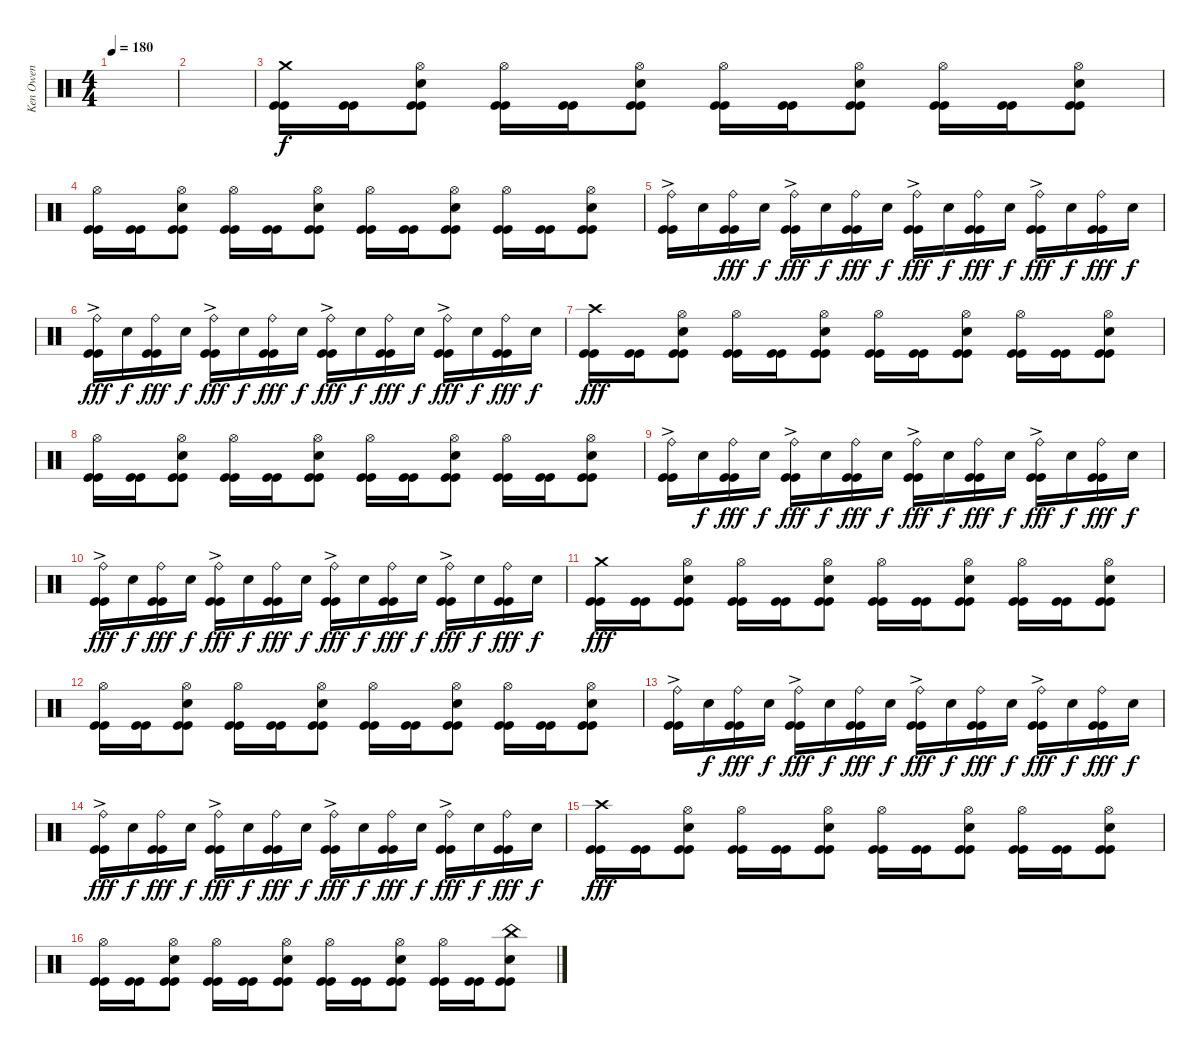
\track ("Ken Owen" "Ken Owen") {instrument percussion}
\staff {score}
\articulation defaults
\ts (4 4)
\tempo 180
\clef neutral
\ks c
|
|
("Crash medium (hit)" "Kick (hit)" "Kick (hit)").16 ("Kick (hit)" "Kick (hit)").16 ("Hi-Hat (open)" "Snare (hit) 2" "Kick (hit)" "Kick (hit)").8 ("Hi-Hat (open)" "Kick (hit)" "Kick (hit)").16 ("Kick (hit)" "Kick (hit)").16 ("Hi-Hat (open)" "Snare (hit) 2" "Kick (hit)" "Kick (hit)").8 ("Hi-Hat (open)" "Kick (hit)" "Kick (hit)").16 ("Kick (hit)" "Kick (hit)").16 ("Hi-Hat (open)" "Snare (hit) 2" "Kick (hit)" "Kick (hit)").8 ("Hi-Hat (open)" "Kick (hit)" "Kick (hit)").16 ("Kick (hit)" "Kick (hit)").16 ("Hi-Hat (open)" "Snare (hit) 2" "Kick (hit)" "Kick (hit)").8 |
("Hi-Hat (open)" "Kick (hit)" "Kick (hit)").16 ("Kick (hit)" "Kick (hit)").16 ("Hi-Hat (open)" "Snare (hit) 2" "Kick (hit)" "Kick (hit)").8 ("Hi-Hat (open)" "Kick (hit)" "Kick (hit)").16 ("Kick (hit)" "Kick (hit)").16 ("Hi-Hat (open)" "Snare (hit) 2" "Kick (hit)" "Kick (hit)").8 ("Hi-Hat (open)" "Kick (hit)" "Kick (hit)").16 ("Kick (hit)" "Kick (hit)").16 ("Hi-Hat (open)" "Snare (hit) 2" "Kick (hit)" "Kick (hit)").8 ("Hi-Hat (open)" "Kick (hit)" "Kick (hit)").16 ("Kick (hit)" "Kick (hit)").16 ("Hi-Hat (open)" "Snare (hit) 2" "Kick (hit)" "Kick (hit)").8 |
("Ride (bell)"{ac} "Kick (hit)" "Kick (hit)").16 "Snare (hit) 2".16{dy f} ("Ride (bell)" "Kick (hit)" "Kick (hit)").16{dy fff} "Snare (hit) 2".16{dy f} ("Ride (bell)"{ac} "Kick (hit)" "Kick (hit)").16{dy fff} "Snare (hit) 2".16{dy f} ("Ride (bell)" "Kick (hit)" "Kick (hit)").16{dy fff} "Snare (hit) 2".16{dy f} ("Ride (bell)"{ac} "Kick (hit)" "Kick (hit)").16{dy fff} "Snare (hit) 2".16{dy f} ("Ride (bell)" "Kick (hit)" "Kick (hit)").16{dy fff} "Snare (hit) 2".16{dy f} ("Ride (bell)"{ac} "Kick (hit)" "Kick (hit)").16{dy fff} "Snare (hit) 2".16{dy f} ("Ride (bell)" "Kick (hit)" "Kick (hit)").16{dy fff} "Snare (hit) 2".16{dy f} |
("Ride (bell)"{ac} "Kick (hit)" "Kick (hit)").16{dy fff} "Snare (hit) 2".16{dy f} ("Ride (bell)" "Kick (hit)" "Kick (hit)").16{dy fff} "Snare (hit) 2".16{dy f} ("Ride (bell)"{ac} "Kick (hit)" "Kick (hit)").16{dy fff} "Snare (hit) 2".16{dy f} ("Ride (bell)" "Kick (hit)" "Kick (hit)").16{dy fff} "Snare (hit) 2".16{dy f} ("Ride (bell)"{ac} "Kick (hit)" "Kick (hit)").16{dy fff} "Snare (hit) 2".16{dy f} ("Ride (bell)" "Kick (hit)" "Kick (hit)").16{dy fff} "Snare (hit) 2".16{dy f} ("Ride (bell)"{ac} "Kick (hit)" "Kick (hit)").16{dy fff} "Snare (hit) 2".16{dy f} ("Ride (bell)" "Kick (hit)" "Kick (hit)").16{dy fff} "Snare (hit) 2".16{dy f} |
("Crash high (hit)" "Kick (hit)" "Kick (hit)").16{dy fff} ("Kick (hit)" "Kick (hit)").16 ("Hi-Hat (open)" "Snare (hit) 2" "Kick (hit)" "Kick (hit)").8 ("Hi-Hat (open)" "Kick (hit)" "Kick (hit)").16 ("Kick (hit)" "Kick (hit)").16 ("Hi-Hat (open)" "Snare (hit) 2" "Kick (hit)" "Kick (hit)").8 ("Hi-Hat (open)" "Kick (hit)" "Kick (hit)").16 ("Kick (hit)" "Kick (hit)").16 ("Hi-Hat (open)" "Snare (hit) 2" "Kick (hit)" "Kick (hit)").8 ("Hi-Hat (open)" "Kick (hit)" "Kick (hit)").16 ("Kick (hit)" "Kick (hit)").16 ("Hi-Hat (open)" "Snare (hit) 2" "Kick (hit)" "Kick (hit)").8 |
("Hi-Hat (open)" "Kick (hit)" "Kick (hit)").16 ("Kick (hit)" "Kick (hit)").16 ("Hi-Hat (open)" "Snare (hit) 2" "Kick (hit)" "Kick (hit)").8 ("Hi-Hat (open)" "Kick (hit)" "Kick (hit)").16 ("Kick (hit)" "Kick (hit)").16 ("Hi-Hat (open)" "Snare (hit) 2" "Kick (hit)" "Kick (hit)").8 ("Hi-Hat (open)" "Kick (hit)" "Kick (hit)").16 ("Kick (hit)" "Kick (hit)").16 ("Hi-Hat (open)" "Snare (hit) 2" "Kick (hit)" "Kick (hit)").8 ("Hi-Hat (open)" "Kick (hit)" "Kick (hit)").16 ("Kick (hit)" "Kick (hit)").16 ("Hi-Hat (open)" "Snare (hit) 2" "Kick (hit)" "Kick (hit)").8 |
("Ride (bell)"{ac} "Kick (hit)" "Kick (hit)").16 "Snare (hit) 2".16{dy f} ("Ride (bell)" "Kick (hit)" "Kick (hit)").16{dy fff} "Snare (hit) 2".16{dy f} ("Ride (bell)"{ac} "Kick (hit)" "Kick (hit)").16{dy fff} "Snare (hit) 2".16{dy f} ("Ride (bell)" "Kick (hit)" "Kick (hit)").16{dy fff} "Snare (hit) 2".16{dy f} ("Ride (bell)"{ac} "Kick (hit)" "Kick (hit)").16{dy fff} "Snare (hit) 2".16{dy f} ("Ride (bell)" "Kick (hit)" "Kick (hit)").16{dy fff} "Snare (hit) 2".16{dy f} ("Ride (bell)"{ac} "Kick (hit)" "Kick (hit)").16{dy fff} "Snare (hit) 2".16{dy f} ("Ride (bell)" "Kick (hit)" "Kick (hit)").16{dy fff} "Snare (hit) 2".16{dy f} |
("Ride (bell)"{ac} "Kick (hit)" "Kick (hit)").16{dy fff} "Snare (hit) 2".16{dy f} ("Ride (bell)" "Kick (hit)" "Kick (hit)").16{dy fff} "Snare (hit) 2".16{dy f} ("Ride (bell)"{ac} "Kick (hit)" "Kick (hit)").16{dy fff} "Snare (hit) 2".16{dy f} ("Ride (bell)" "Kick (hit)" "Kick (hit)").16{dy fff} "Snare (hit) 2".16{dy f} ("Ride (bell)"{ac} "Kick (hit)" "Kick (hit)").16{dy fff} "Snare (hit) 2".16{dy f} ("Ride (bell)" "Kick (hit)" "Kick (hit)").16{dy fff} "Snare (hit) 2".16{dy f} ("Ride (bell)"{ac} "Kick (hit)" "Kick (hit)").16{dy fff} "Snare (hit) 2".16{dy f} ("Ride (bell)" "Kick (hit)" "Kick (hit)").16{dy fff} "Snare (hit) 2".16{dy f} |
("Crash medium (hit)" "Kick (hit)" "Kick (hit)").16{dy fff} ("Kick (hit)" "Kick (hit)").16 ("Hi-Hat (open)" "Snare (hit) 2" "Kick (hit)" "Kick (hit)").8 ("Hi-Hat (open)" "Kick (hit)" "Kick (hit)").16 ("Kick (hit)" "Kick (hit)").16 ("Hi-Hat (open)" "Snare (hit) 2" "Kick (hit)" "Kick (hit)").8 ("Hi-Hat (open)" "Kick (hit)" "Kick (hit)").16 ("Kick (hit)" "Kick (hit)").16 ("Hi-Hat (open)" "Snare (hit) 2" "Kick (hit)" "Kick (hit)").8 ("Hi-Hat (open)" "Kick (hit)" "Kick (hit)").16 ("Kick (hit)" "Kick (hit)").16 ("Hi-Hat (open)" "Snare (hit) 2" "Kick (hit)" "Kick (hit)").8 |
("Hi-Hat (open)" "Kick (hit)" "Kick (hit)").16 ("Kick (hit)" "Kick (hit)").16 ("Hi-Hat (open)" "Snare (hit) 2" "Kick (hit)" "Kick (hit)").8 ("Hi-Hat (open)" "Kick (hit)" "Kick (hit)").16 ("Kick (hit)" "Kick (hit)").16 ("Hi-Hat (open)" "Snare (hit) 2" "Kick (hit)" "Kick (hit)").8 ("Hi-Hat (open)" "Kick (hit)" "Kick (hit)").16 ("Kick (hit)" "Kick (hit)").16 ("Hi-Hat (open)" "Snare (hit) 2" "Kick (hit)" "Kick (hit)").8 ("Hi-Hat (open)" "Kick (hit)" "Kick (hit)").16 ("Kick (hit)" "Kick (hit)").16 ("Hi-Hat (open)" "Snare (hit) 2" "Kick (hit)" "Kick (hit)").8 |
("Ride (bell)"{ac} "Kick (hit)" "Kick (hit)").16 "Snare (hit) 2".16{dy f} ("Ride (bell)" "Kick (hit)" "Kick (hit)").16{dy fff} "Snare (hit) 2".16{dy f} ("Ride (bell)"{ac} "Kick (hit)" "Kick (hit)").16{dy fff} "Snare (hit) 2".16{dy f} ("Ride (bell)" "Kick (hit)" "Kick (hit)").16{dy fff} "Snare (hit) 2".16{dy f} ("Ride (bell)"{ac} "Kick (hit)" "Kick (hit)").16{dy fff} "Snare (hit) 2".16{dy f} ("Ride (bell)" "Kick (hit)" "Kick (hit)").16{dy fff} "Snare (hit) 2".16{dy f} ("Ride (bell)"{ac} "Kick (hit)" "Kick (hit)").16{dy fff} "Snare (hit) 2".16{dy f} ("Ride (bell)" "Kick (hit)" "Kick (hit)").16{dy fff} "Snare (hit) 2".16{dy f} |
("Ride (bell)"{ac} "Kick (hit)" "Kick (hit)").16{dy fff} "Snare (hit) 2".16{dy f} ("Ride (bell)" "Kick (hit)" "Kick (hit)").16{dy fff} "Snare (hit) 2".16{dy f} ("Ride (bell)"{ac} "Kick (hit)" "Kick (hit)").16{dy fff} "Snare (hit) 2".16{dy f} ("Ride (bell)" "Kick (hit)" "Kick (hit)").16{dy fff} "Snare (hit) 2".16{dy f} ("Ride (bell)"{ac} "Kick (hit)" "Kick (hit)").16{dy fff} "Snare (hit) 2".16{dy f} ("Ride (bell)" "Kick (hit)" "Kick (hit)").16{dy fff} "Snare (hit) 2".16{dy f} ("Ride (bell)"{ac} "Kick (hit)" "Kick (hit)").16{dy fff} "Snare (hit) 2".16{dy f} ("Ride (bell)" "Kick (hit)" "Kick (hit)").16{dy fff} "Snare (hit) 2".16{dy f} |
("Crash high (hit)" "Kick (hit)" "Kick (hit)").16{dy fff} ("Kick (hit)" "Kick (hit)").16 ("Hi-Hat (open)" "Snare (hit) 2" "Kick (hit)" "Kick (hit)").8 ("Hi-Hat (open)" "Kick (hit)" "Kick (hit)").16 ("Kick (hit)" "Kick (hit)").16 ("Hi-Hat (open)" "Snare (hit) 2" "Kick (hit)" "Kick (hit)").8 ("Hi-Hat (open)" "Kick (hit)" "Kick (hit)").16 ("Kick (hit)" "Kick (hit)").16 ("Hi-Hat (open)" "Snare (hit) 2" "Kick (hit)" "Kick (hit)").8 ("Hi-Hat (open)" "Kick (hit)" "Kick (hit)").16 ("Kick (hit)" "Kick (hit)").16 ("Hi-Hat (open)" "Snare (hit) 2" "Kick (hit)" "Kick (hit)").8 |
("Hi-Hat (open)" "Kick (hit)" "Kick (hit)").16 ("Kick (hit)" "Kick (hit)").16 ("Hi-Hat (open)" "Snare (hit) 2" "Kick (hit)" "Kick (hit)").8 ("Hi-Hat (open)" "Kick (hit)" "Kick (hit)").16 ("Kick (hit)" "Kick (hit)").16 ("Hi-Hat (open)" "Snare (hit) 2" "Kick (hit)" "Kick (hit)").8 ("Hi-Hat (open)" "Kick (hit)" "Kick (hit)").16 ("Kick (hit)" "Kick (hit)").16 ("Hi-Hat (open)" "Snare (hit) 2" "Kick (hit)" "Kick (hit)").8 ("Hi-Hat (open)" "Kick (hit)" "Kick (hit)").16 ("Kick (hit)" "Kick (hit)").16 ("China (hit)" "Snare (hit) 2" "Kick (hit)" "Kick (hit)").8
